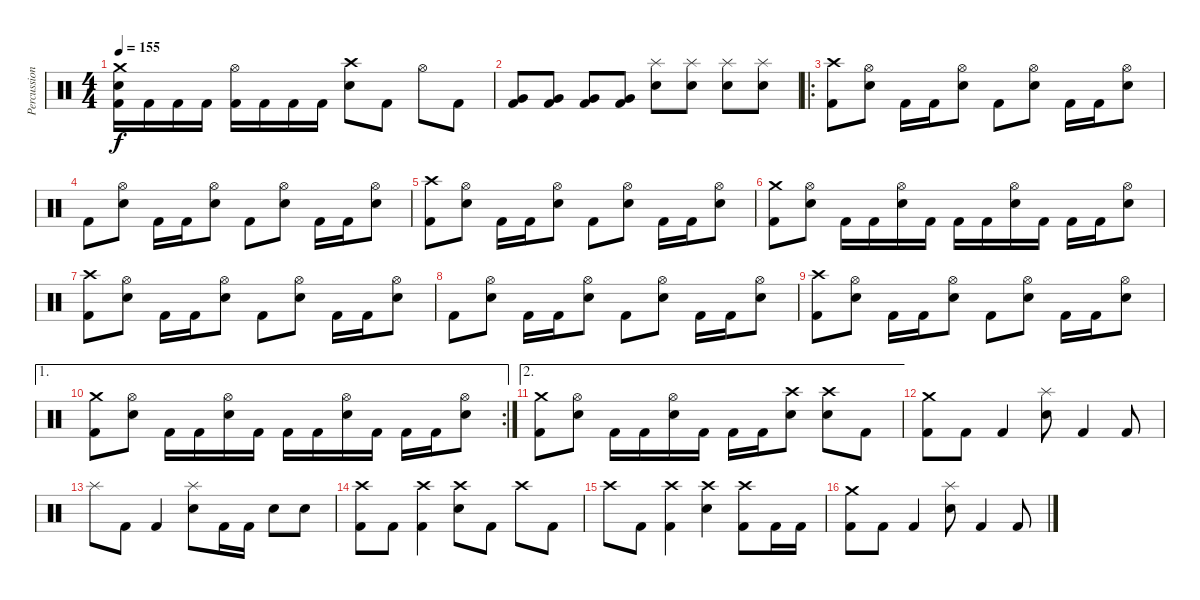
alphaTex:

\track ("Percussion" "Percussion") {instrument percussion}
\staff {score}
\articulation defaults
\ts (4 4)
\tempo 155
\clef neutral
\ks c
("Crash medium (hit)" "Snare (hit) 2" "Kick (hit) 2").16{dy f} "Kick (hit) 2".16 "Kick (hit) 2".16 "Kick (hit) 2".16 ("Hi-Hat (open)" "Kick (hit) 2").16 "Kick (hit) 2".16 "Kick (hit) 2".16 "Kick (hit) 2".16 ("Crash high (hit)" "Snare (hit) 2").8 "Kick (hit) 2".8 "Hi-Hat (open)".8 "Kick (hit) 2".8 |
("Very Low Tom (hit)" "Kick (hit) 2").8 ("Very Low Tom (hit)" "Kick (hit) 2").8 ("Very Low Tom (hit)" "Kick (hit) 2").8 ("Very Low Tom (hit)" "Kick (hit) 2").8 ("Splash (hit)" "Snare (hit) 2").8 ("Splash (hit)" "Snare (hit) 2").8 ("Splash (hit)" "Snare (hit) 2").8 ("Splash (hit)" "Snare (hit) 2").8 |
\ro
("Crash high (hit)" "Kick (hit) 2").8 ("Hi-Hat (open)" "Snare (hit) 2").8 "Kick (hit) 2".16 "Kick (hit) 2".16 ("Hi-Hat (open)" "Snare (hit) 2").8 "Kick (hit) 2".8 ("Hi-Hat (open)" "Snare (hit) 2").8 "Kick (hit) 2".16 "Kick (hit) 2".16 ("Hi-Hat (open)" "Snare (hit) 2").8 |
"Kick (hit) 2".8 ("Hi-Hat (open)" "Snare (hit) 2").8 "Kick (hit) 2".16 "Kick (hit) 2".16 ("Hi-Hat (open)" "Snare (hit) 2").8 "Kick (hit) 2".8 ("Hi-Hat (open)" "Snare (hit) 2").8 "Kick (hit) 2".16 "Kick (hit) 2".16 ("Hi-Hat (open)" "Snare (hit) 2").8 |
("Crash high (hit)" "Kick (hit) 2").8 ("Hi-Hat (open)" "Snare (hit) 2").8 "Kick (hit) 2".16 "Kick (hit) 2".16 ("Hi-Hat (open)" "Snare (hit) 2").8 "Kick (hit) 2".8 ("Hi-Hat (open)" "Snare (hit) 2").8 "Kick (hit) 2".16 "Kick (hit) 2".16 ("Hi-Hat (open)" "Snare (hit) 2").8 |
("Crash medium (hit)" "Kick (hit) 2").8 ("Hi-Hat (open)" "Snare (hit) 2").8 "Kick (hit) 2".16 "Kick (hit) 2".16 ("Hi-Hat (open)" "Snare (hit) 2").16 "Kick (hit) 2".16 "Kick (hit) 2".16 "Kick (hit) 2".16 ("Hi-Hat (open)" "Snare (hit) 2").16 "Kick (hit) 2".16 "Kick (hit) 2".16 "Kick (hit) 2".16 ("Hi-Hat (open)" "Snare (hit) 2").8 |
("Crash high (hit)" "Kick (hit) 2").8 ("Hi-Hat (open)" "Snare (hit) 2").8 "Kick (hit) 2".16 "Kick (hit) 2".16 ("Hi-Hat (open)" "Snare (hit) 2").8 "Kick (hit) 2".8 ("Hi-Hat (open)" "Snare (hit) 2").8 "Kick (hit) 2".16 "Kick (hit) 2".16 ("Hi-Hat (open)" "Snare (hit) 2").8 |
"Kick (hit) 2".8 ("Hi-Hat (open)" "Snare (hit) 2").8 "Kick (hit) 2".16 "Kick (hit) 2".16 ("Hi-Hat (open)" "Snare (hit) 2").8 "Kick (hit) 2".8 ("Hi-Hat (open)" "Snare (hit) 2").8 "Kick (hit) 2".16 "Kick (hit) 2".16 ("Hi-Hat (open)" "Snare (hit) 2").8 |
("Crash high (hit)" "Kick (hit) 2").8 ("Hi-Hat (open)" "Snare (hit) 2").8 "Kick (hit) 2".16 "Kick (hit) 2".16 ("Hi-Hat (open)" "Snare (hit) 2").8 "Kick (hit) 2".8 ("Hi-Hat (open)" "Snare (hit) 2").8 "Kick (hit) 2".16 "Kick (hit) 2".16 ("Hi-Hat (open)" "Snare (hit) 2").8 |
\ae 1
\rc 2
("Crash medium (hit)" "Kick (hit) 2").8 ("Hi-Hat (open)" "Snare (hit) 2").8 "Kick (hit) 2".16 "Kick (hit) 2".16 ("Hi-Hat (open)" "Snare (hit) 2").16 "Kick (hit) 2".16 "Kick (hit) 2".16 "Kick (hit) 2".16 ("Hi-Hat (open)" "Snare (hit) 2").16 "Kick (hit) 2".16 "Kick (hit) 2".16 "Kick (hit) 2".16 ("Hi-Hat (open)" "Snare (hit) 2").8 |
\ae 2
("Crash medium (hit)" "Kick (hit) 2").8 ("Hi-Hat (open)" "Snare (hit) 2").8 "Kick (hit) 2".16 "Kick (hit) 2".16 ("Hi-Hat (open)" "Snare (hit) 2").16 "Kick (hit) 2".16 "Kick (hit) 2".16 "Kick (hit) 2".16 ("Crash high (hit)" "Snare (hit) 2").8 ("Crash high (hit)" "Snare (hit) 2").8 "Kick (hit) 2".8 |
("Crash medium (hit)" "Kick (hit) 2").8 "Kick (hit) 2".8 "Kick (hit) 2".4 ("Splash (hit)" "Snare (hit) 2").8 "Kick (hit) 2".4 "Kick (hit) 2".8 |
"Splash (hit)".8 "Kick (hit) 2".8 "Kick (hit) 2".4 ("Splash (hit)" "Snare (hit) 2").8 "Kick (hit) 2".16 "Kick (hit) 2".16 "Snare (hit) 2".8 "Snare (hit) 2".8 |
("Crash high (hit)" "Kick (hit) 2").8 "Kick (hit) 2".8 ("Crash high (hit)" "Kick (hit) 2").4 ("Crash high (hit)" "Snare (hit) 2").8 "Kick (hit) 2".8 "Crash high (hit)".8 "Kick (hit) 2".8 |
"Crash high (hit)".8 "Kick (hit) 2".8 ("Crash high (hit)" "Kick (hit) 2").4 ("Crash high (hit)" "Snare (hit) 2").4 ("Crash high (hit)" "Kick (hit) 2").8 "Kick (hit) 2".16 "Kick (hit) 2".16 |
("Crash medium (hit)" "Kick (hit) 2").8 "Kick (hit) 2".8 "Kick (hit) 2".4 ("Splash (hit)" "Snare (hit) 2").8 "Kick (hit) 2".4 "Kick (hit) 2".8
